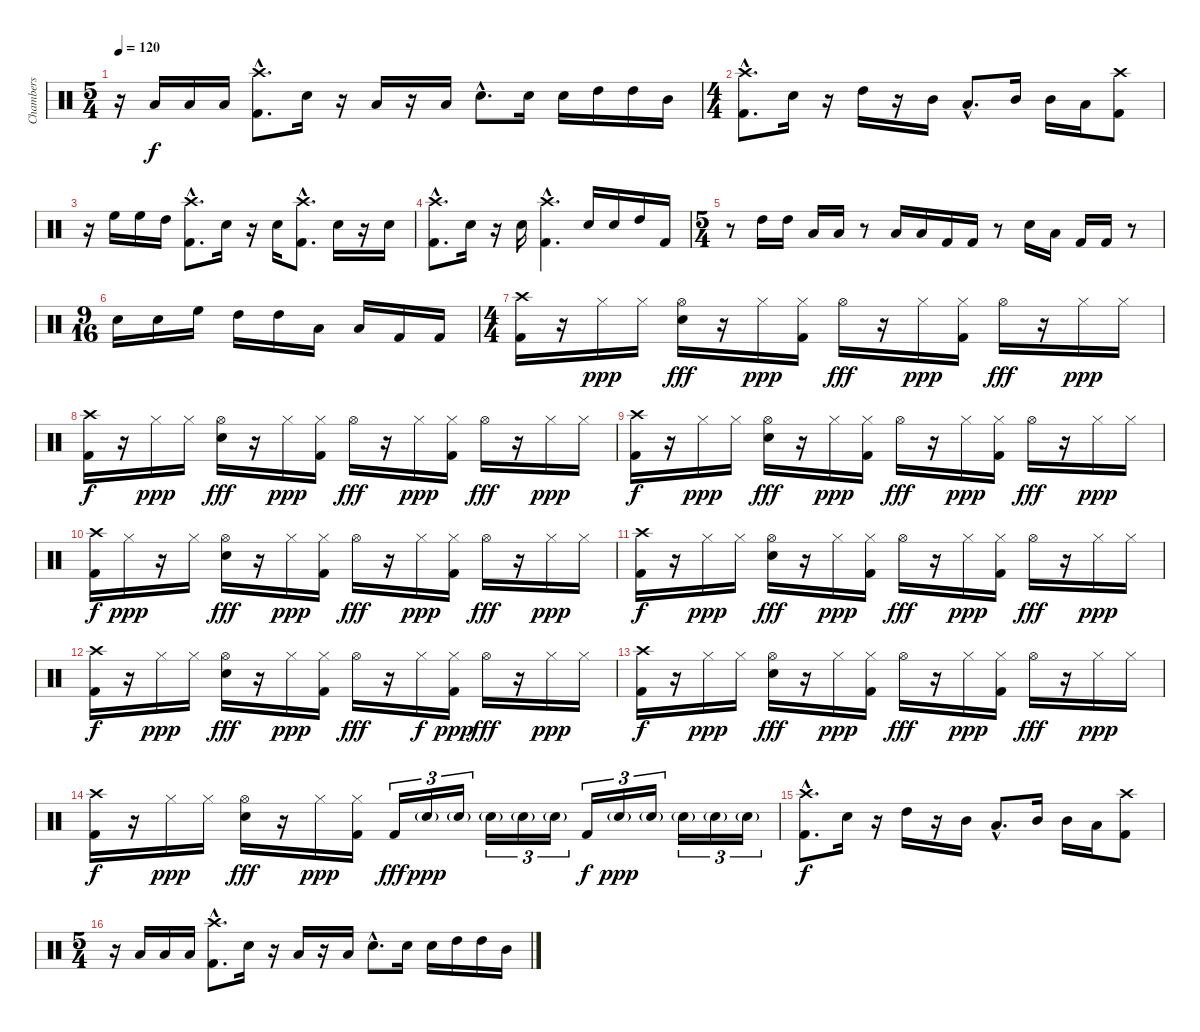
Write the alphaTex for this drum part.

\track ("Chambers" "Chambers") {instrument percussion}
\staff {score}
\articulation defaults
\ts (5 4)
\tempo 120
\clef neutral
\ks c
r.16{dy f} "Low Tom (hit)".16 "Low Tom (hit)".16 "Low Tom (hit)".16 ("Crash high (hit)"{hac} "Kick (hit) 2"{hac}).8{d} "Electric Snare (hit)".16 r.16 "Low Tom (hit)".16 r.16 "Low Tom (hit)".16 "Electric Snare (hit)"{hac}.8{d} "Electric Snare (hit)".16 "Electric Snare (hit)".16 "High Tom (hit)".16 "High Tom (hit)".16 "Mid Tom (hit)".16 |
\ts (4 4)
("Crash high (hit)"{hac} "Kick (hit) 2"{hac}).8{d} "Electric Snare (hit)".16 r.16 "High Tom (hit)".16 r.16 "Mid Tom (hit)".16 "Low Tom (hit)"{hac}.8{d} "Mid Tom (hit)".16 "Mid Tom (hit)".16 "Low Tom (hit)".16 ("Crash high (hit)" "Kick (hit) 2").8 |
r.16 "High Floor Tom (hit)".16 "High Floor Tom (hit)".16 "High Tom (hit)".16 ("Crash high (hit)"{hac} "Kick (hit) 2"{hac}).8{d} "Electric Snare (hit)".16 r.16 "Electric Snare (hit)".16 ("Crash high (hit)"{hac} "Kick (hit) 2"{hac}).8{d} "Electric Snare (hit)".16 r.16 "Electric Snare (hit)".16 |
("Crash high (hit)"{hac} "Kick (hit) 2"{hac}).8{d} "Electric Snare (hit)".16 r.16 "Electric Snare (hit)".16 ("Crash high (hit)"{hac} "Kick (hit) 2"{hac}).4{d} "Electric Snare (hit)".16 "Electric Snare (hit)".16 "High Tom (hit)".16 "Kick (hit) 2".16 |
\ts (5 4)
r.8 "High Tom (hit)".16 "High Tom (hit)".16 "Low Tom (hit)".16 "Low Tom (hit)".16 r.8 "Low Tom (hit)".16 "Low Tom (hit)".16 "Kick (hit) 2".16 "Kick (hit) 2".16 r.8 "Electric Snare (hit)".16 "Low Tom (hit)".16 "Kick (hit) 2".16 "Kick (hit) 2".16 r.8 |
\ts (9 16)
"Electric Snare (hit)".16 "Electric Snare (hit)".16 "High Floor Tom (hit)".16 "High Tom (hit)".16 "High Tom (hit)".16 "Low Tom (hit)".16 "Low Tom (hit)".16 "Kick (hit) 2".16 "Kick (hit) 2".16 |
\ts (4 4)
("Crash high (hit)" "Kick (hit) 2").16 r.16 "Hi-Hat (closed)".16{dy ppp} "Hi-Hat (closed)".16 ("Hi-Hat (open)" "Electric Snare (hit)").16{dy fff} r.16 "Hi-Hat (closed)".16{dy ppp} ("Hi-Hat (closed)" "Kick (hit) 2").16 "Hi-Hat (open)".16{dy fff} r.16 "Hi-Hat (closed)".16{dy ppp} ("Hi-Hat (closed)" "Kick (hit) 2").16 "Hi-Hat (open)".16{dy fff} r.16 "Hi-Hat (closed)".16{dy ppp} "Hi-Hat (closed)".16 |
("Crash high (hit)" "Kick (hit) 2").16{dy f} r.16 "Hi-Hat (closed)".16{dy ppp} "Hi-Hat (closed)".16 ("Hi-Hat (open)" "Electric Snare (hit)").16{dy fff} r.16 "Hi-Hat (closed)".16{dy ppp} ("Hi-Hat (closed)" "Kick (hit) 2").16 "Hi-Hat (open)".16{dy fff} r.16 "Hi-Hat (closed)".16{dy ppp} ("Hi-Hat (closed)" "Kick (hit) 2").16 "Hi-Hat (open)".16{dy fff} r.16 "Hi-Hat (closed)".16{dy ppp} "Hi-Hat (closed)".16 |
("Crash high (hit)" "Kick (hit) 2").16{dy f} r.16 "Hi-Hat (closed)".16{dy ppp} "Hi-Hat (closed)".16 ("Hi-Hat (open)" "Electric Snare (hit)").16{dy fff} r.16 "Hi-Hat (closed)".16{dy ppp} ("Hi-Hat (closed)" "Kick (hit) 2").16 "Hi-Hat (open)".16{dy fff} r.16 "Hi-Hat (closed)".16{dy ppp} ("Hi-Hat (closed)" "Kick (hit) 2").16 "Hi-Hat (open)".16{dy fff} r.16 "Hi-Hat (closed)".16{dy ppp} "Hi-Hat (closed)".16 |
("Crash high (hit)" "Kick (hit) 2").16{dy f} "Hi-Hat (closed)".16{dy ppp} r.16 "Hi-Hat (closed)".16 ("Hi-Hat (open)" "Electric Snare (hit)").16{dy fff} r.16 "Hi-Hat (closed)".16{dy ppp} ("Hi-Hat (closed)" "Kick (hit) 2").16 "Hi-Hat (open)".16{dy fff} r.16 "Hi-Hat (closed)".16{dy ppp} ("Hi-Hat (closed)" "Kick (hit) 2").16 "Hi-Hat (open)".16{dy fff} r.16 "Hi-Hat (closed)".16{dy ppp} "Hi-Hat (closed)".16 |
("Crash high (hit)" "Kick (hit) 2").16{dy f} r.16 "Hi-Hat (closed)".16{dy ppp} "Hi-Hat (closed)".16 ("Hi-Hat (open)" "Electric Snare (hit)").16{dy fff} r.16 "Hi-Hat (closed)".16{dy ppp} ("Hi-Hat (closed)" "Kick (hit) 2").16 "Hi-Hat (open)".16{dy fff} r.16 "Hi-Hat (closed)".16{dy ppp} ("Hi-Hat (closed)" "Kick (hit) 2").16 "Hi-Hat (open)".16{dy fff} r.16 "Hi-Hat (closed)".16{dy ppp} "Hi-Hat (closed)".16 |
("Crash high (hit)" "Kick (hit) 2").16{dy f} r.16 "Hi-Hat (closed)".16{dy ppp} "Hi-Hat (closed)".16 ("Hi-Hat (open)" "Electric Snare (hit)").16{dy fff} r.16 "Hi-Hat (closed)".16{dy ppp} ("Hi-Hat (closed)" "Kick (hit) 2").16 "Hi-Hat (open)".16{dy fff} r.16 "Hi-Hat (closed)".16{dy f} ("Hi-Hat (closed)" "Kick (hit) 2").16{dy ppp} "Hi-Hat (open)".16{dy fff} r.16 "Hi-Hat (closed)".16{dy ppp} "Hi-Hat (closed)".16 |
("Crash high (hit)" "Kick (hit) 2").16{dy f} r.16 "Hi-Hat (closed)".16{dy ppp} "Hi-Hat (closed)".16 ("Hi-Hat (open)" "Electric Snare (hit)").16{dy fff} r.16 "Hi-Hat (closed)".16{dy ppp} ("Hi-Hat (closed)" "Kick (hit) 2").16 "Hi-Hat (open)".16{dy fff} r.16 "Hi-Hat (closed)".16{dy ppp} ("Hi-Hat (closed)" "Kick (hit) 2").16 "Hi-Hat (open)".16{dy fff} r.16 "Hi-Hat (closed)".16{dy ppp} "Hi-Hat (closed)".16 |
("Crash high (hit)" "Kick (hit) 2").16{dy f} r.16 "Hi-Hat (closed)".16{dy ppp} "Hi-Hat (closed)".16 ("Hi-Hat (open)" "Electric Snare (hit)").16{dy fff} r.16 "Hi-Hat (closed)".16{dy ppp} ("Hi-Hat (closed)" "Kick (hit) 2").16 "Kick (hit) 2".16{tu (3 2) dy fff} "Electric Snare (hit)"{g}.16{tu (3 2) dy ppp} "Electric Snare (hit)"{g}.16{tu (3 2)} "Electric Snare (hit)"{g}.16{tu (3 2)} "Electric Snare (hit)"{g}.16{tu (3 2)} "Electric Snare (hit)"{g}.16{tu (3 2)} "Kick (hit) 2".16{tu (3 2) dy f} "Electric Snare (hit)"{g}.16{tu (3 2) dy ppp} "Electric Snare (hit)"{g}.16{tu (3 2)} "Electric Snare (hit)"{g}.16{tu (3 2)} "Electric Snare (hit)"{g}.16{tu (3 2)} "Electric Snare (hit)"{g}.16{tu (3 2)} |
("Crash high (hit)"{hac} "Kick (hit) 2"{hac}).8{d dy f} "Electric Snare (hit)".16 r.16 "High Tom (hit)".16 r.16 "Mid Tom (hit)".16 "Low Tom (hit)"{hac}.8{d} "Mid Tom (hit)".16 "Mid Tom (hit)".16 "Low Tom (hit)".16 ("Crash high (hit)" "Kick (hit) 2").8 |
\ts (5 4)
r.16 "Low Tom (hit)".16 "Low Tom (hit)".16 "Low Tom (hit)".16 ("Crash high (hit)"{hac} "Kick (hit) 2"{hac}).8{d} "Electric Snare (hit)".16 r.16 "Low Tom (hit)".16 r.16 "Low Tom (hit)".16 "Electric Snare (hit)"{hac}.8{d} "Electric Snare (hit)".16 "Electric Snare (hit)".16 "High Tom (hit)".16 "High Tom (hit)".16 "Mid Tom (hit)".16
